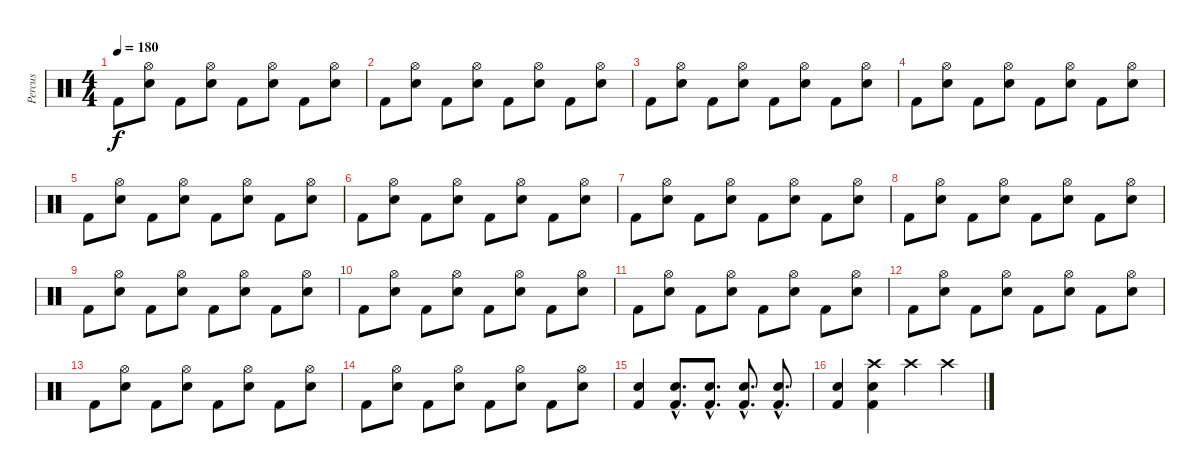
\track ("Percus" "Percus") {instrument percussion}
\staff {score}
\articulation defaults
\ts (4 4)
\tempo 180
\clef neutral
\ks c "Kick (hit) 2".8{dy f}
("Hi-Hat (open)" "Snare (hit) 2").8 "Kick (hit) 2".8 ("Hi-Hat (open)" "Snare (hit) 2").8 "Kick (hit) 2".8 ("Hi-Hat (open)" "Snare (hit) 2").8 "Kick (hit) 2".8 ("Hi-Hat (open)" "Snare (hit) 2").8 |
"Kick (hit) 2".8 ("Hi-Hat (open)" "Snare (hit) 2").8 "Kick (hit) 2".8 ("Hi-Hat (open)" "Snare (hit) 2").8 "Kick (hit) 2".8 ("Hi-Hat (open)" "Snare (hit) 2").8 "Kick (hit) 2".8 ("Hi-Hat (open)" "Snare (hit) 2").8 |
"Kick (hit) 2".8 ("Hi-Hat (open)" "Snare (hit) 2").8 "Kick (hit) 2".8 ("Hi-Hat (open)" "Snare (hit) 2").8 "Kick (hit) 2".8 ("Hi-Hat (open)" "Snare (hit) 2").8 "Kick (hit) 2".8 ("Hi-Hat (open)" "Snare (hit) 2").8 |
"Kick (hit) 2".8 ("Hi-Hat (open)" "Snare (hit) 2").8 "Kick (hit) 2".8 ("Hi-Hat (open)" "Snare (hit) 2").8 "Kick (hit) 2".8 ("Hi-Hat (open)" "Snare (hit) 2").8 "Kick (hit) 2".8 ("Hi-Hat (open)" "Snare (hit) 2").8 |
"Kick (hit) 2".8 ("Hi-Hat (open)" "Snare (hit) 2").8 "Kick (hit) 2".8 ("Hi-Hat (open)" "Snare (hit) 2").8 "Kick (hit) 2".8 ("Hi-Hat (open)" "Snare (hit) 2").8 "Kick (hit) 2".8 ("Hi-Hat (open)" "Snare (hit) 2").8 |
"Kick (hit) 2".8 ("Hi-Hat (open)" "Snare (hit) 2").8 "Kick (hit) 2".8 ("Hi-Hat (open)" "Snare (hit) 2").8 "Kick (hit) 2".8 ("Hi-Hat (open)" "Snare (hit) 2").8 "Kick (hit) 2".8 ("Hi-Hat (open)" "Snare (hit) 2").8 |
"Kick (hit) 2".8 ("Hi-Hat (open)" "Snare (hit) 2").8 "Kick (hit) 2".8 ("Hi-Hat (open)" "Snare (hit) 2").8 "Kick (hit) 2".8 ("Hi-Hat (open)" "Snare (hit) 2").8 "Kick (hit) 2".8 ("Hi-Hat (open)" "Snare (hit) 2").8 |
"Kick (hit) 2".8 ("Hi-Hat (open)" "Snare (hit) 2").8 "Kick (hit) 2".8 ("Hi-Hat (open)" "Snare (hit) 2").8 "Kick (hit) 2".8 ("Hi-Hat (open)" "Snare (hit) 2").8 "Kick (hit) 2".8 ("Hi-Hat (open)" "Snare (hit) 2").8 |
"Kick (hit) 2".8 ("Hi-Hat (open)" "Snare (hit) 2").8 "Kick (hit) 2".8 ("Hi-Hat (open)" "Snare (hit) 2").8 "Kick (hit) 2".8 ("Hi-Hat (open)" "Snare (hit) 2").8 "Kick (hit) 2".8 ("Hi-Hat (open)" "Snare (hit) 2").8 |
"Kick (hit) 2".8 ("Hi-Hat (open)" "Snare (hit) 2").8 "Kick (hit) 2".8 ("Hi-Hat (open)" "Snare (hit) 2").8 "Kick (hit) 2".8 ("Hi-Hat (open)" "Snare (hit) 2").8 "Kick (hit) 2".8 ("Hi-Hat (open)" "Snare (hit) 2").8 |
"Kick (hit) 2".8 ("Hi-Hat (open)" "Snare (hit) 2").8 "Kick (hit) 2".8 ("Hi-Hat (open)" "Snare (hit) 2").8 "Kick (hit) 2".8 ("Hi-Hat (open)" "Snare (hit) 2").8 "Kick (hit) 2".8 ("Hi-Hat (open)" "Snare (hit) 2").8 |
"Kick (hit) 2".8 ("Hi-Hat (open)" "Snare (hit) 2").8 "Kick (hit) 2".8 ("Hi-Hat (open)" "Snare (hit) 2").8 "Kick (hit) 2".8 ("Hi-Hat (open)" "Snare (hit) 2").8 "Kick (hit) 2".8 ("Hi-Hat (open)" "Snare (hit) 2").8 |
"Kick (hit) 2".8 ("Hi-Hat (open)" "Snare (hit) 2").8 "Kick (hit) 2".8 ("Hi-Hat (open)" "Snare (hit) 2").8 "Kick (hit) 2".8 ("Hi-Hat (open)" "Snare (hit) 2").8 "Kick (hit) 2".8 ("Hi-Hat (open)" "Snare (hit) 2").8 |
"Kick (hit) 2".8 ("Hi-Hat (open)" "Snare (hit) 2").8 "Kick (hit) 2".8 ("Hi-Hat (open)" "Snare (hit) 2").8 "Kick (hit) 2".8 ("Hi-Hat (open)" "Snare (hit) 2").8 "Kick (hit) 2".8 ("Hi-Hat (open)" "Snare (hit) 2").8 |
("Snare (hit) 2" "Kick (hit) 2").4 ("Snare (hit) 2"{hac} "Kick (hit) 2"{hac}).8{d} ("Snare (hit) 2"{hac} "Kick (hit) 2"{hac}).8{d} ("Snare (hit) 2"{hac} "Kick (hit) 2"{hac}).8{d} ("Snare (hit) 2"{hac} "Kick (hit) 2"{hac}).8{d} |
("Snare (hit) 2" "Kick (hit) 2").4 ("Crash high (hit)" "Snare (hit) 2" "Kick (hit) 2").4 "Crash high (hit)".4 "Crash high (hit)".4
